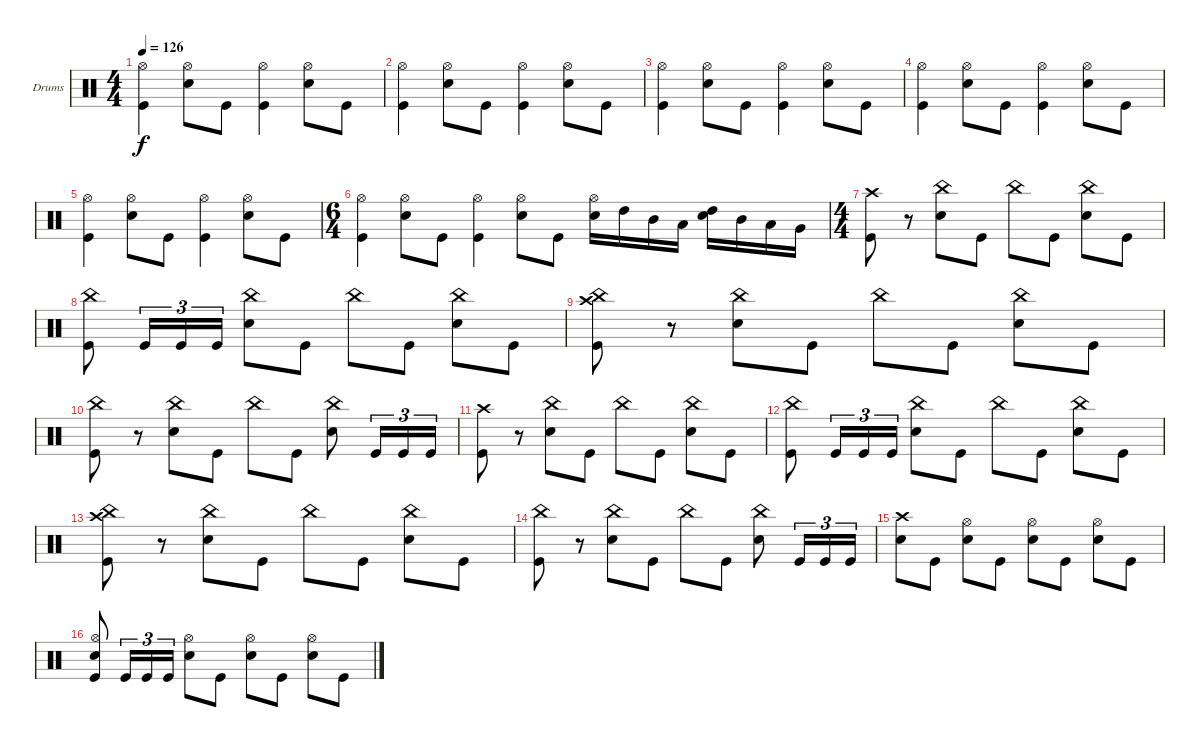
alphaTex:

\bracketExtendMode groupsimilarinstruments
\firstSystemTrackNameOrientation horizontal
\otherSystemsTrackNameOrientation horizontal
\track ("Drumkit" "Drums") {instrument percussion}
\staff {score}
\articulation defaults
\ts (4 4)
\tempo 126
\clef neutral
\ks c
("Kick (hit)" "Hi-Hat (open)").4{dy f} ("Snare (hit) 2" "Hi-Hat (open)").8 "Kick (hit)".8 ("Kick (hit)" "Hi-Hat (open)").4 ("Snare (hit) 2" "Hi-Hat (open)").8 "Kick (hit)".8 |
("Kick (hit)" "Hi-Hat (open)").4 ("Snare (hit) 2" "Hi-Hat (open)").8 "Kick (hit)".8 ("Kick (hit)" "Hi-Hat (open)").4 ("Snare (hit) 2" "Hi-Hat (open)").8 "Kick (hit)".8 |
("Kick (hit)" "Hi-Hat (open)").4 ("Snare (hit) 2" "Hi-Hat (open)").8 "Kick (hit)".8 ("Kick (hit)" "Hi-Hat (open)").4 ("Snare (hit) 2" "Hi-Hat (open)").8 "Kick (hit)".8 |
("Kick (hit)" "Hi-Hat (open)").4 ("Snare (hit) 2" "Hi-Hat (open)").8 "Kick (hit)".8 ("Kick (hit)" "Hi-Hat (open)").4 ("Snare (hit) 2" "Hi-Hat (open)").8 "Kick (hit)".8 |
("Kick (hit)" "Hi-Hat (open)").4 ("Snare (hit) 2" "Hi-Hat (open)").8 "Kick (hit)".8 ("Kick (hit)" "Hi-Hat (open)").4 ("Snare (hit) 2" "Hi-Hat (open)").8 "Kick (hit)".8 |
\ts (6 4)
("Kick (hit)" "Hi-Hat (open)").4 ("Snare (hit) 2" "Hi-Hat (open)").8 "Kick (hit)".8 ("Kick (hit)" "Hi-Hat (open)").4 ("Snare (hit) 2" "Hi-Hat (open)").8 "Kick (hit)".8 ("Hi-Hat (open)" "Snare (hit) 2").16 "High Tom (hit)".16 "Mid Tom (hit)".16 "Low Tom (hit)".16 ("High Tom (hit)" "Snare (hit) 2").16 "Mid Tom (hit)".16 "Low Tom (hit)".16 "Very Low Tom (hit)".16 |
\ts (4 4)
\beaming (8 2 2 2 2)
("Kick (hit)" "Crash high (hit)").8 r.8 ("Snare (hit) 2" "China (hit)").8 "Kick (hit)".8 "China (hit)".8 "Kick (hit)".8 ("Snare (hit) 2" "China (hit)").8 "Kick (hit)".8 |
("Kick (hit)" "China (hit)").8 "Kick (hit)".16{tu (3 2)} "Kick (hit)".16{tu (3 2)} "Kick (hit)".16{tu (3 2)} ("Snare (hit) 2" "China (hit)").8 "Kick (hit)".8 "China (hit)".8 "Kick (hit)".8 ("Snare (hit) 2" "China (hit)").8 "Kick (hit)".8 |
("Kick (hit)" "China (hit)" "Crash high (hit)").8 r.8 ("Snare (hit) 2" "China (hit)").8 "Kick (hit)".8 "China (hit)".8 "Kick (hit)".8 ("Snare (hit) 2" "China (hit)").8 "Kick (hit)".8 |
("Kick (hit)" "China (hit)").8 r.8 ("Snare (hit) 2" "China (hit)").8 "Kick (hit)".8 "China (hit)".8 "Kick (hit)".8 ("Snare (hit) 2" "China (hit)").8 "Kick (hit)".16{tu (3 2)} "Kick (hit)".16{tu (3 2)} "Kick (hit)".16{tu (3 2)} |
("Kick (hit)" "Crash high (hit)").8 r.8 ("Snare (hit) 2" "China (hit)").8 "Kick (hit)".8 "China (hit)".8 "Kick (hit)".8 ("Snare (hit) 2" "China (hit)").8 "Kick (hit)".8 |
("Kick (hit)" "China (hit)").8 "Kick (hit)".16{tu (3 2)} "Kick (hit)".16{tu (3 2)} "Kick (hit)".16{tu (3 2)} ("Snare (hit) 2" "China (hit)").8 "Kick (hit)".8 "China (hit)".8 "Kick (hit)".8 ("Snare (hit) 2" "China (hit)").8 "Kick (hit)".8 |
("Kick (hit)" "China (hit)" "Crash high (hit)").8 r.8 ("Snare (hit) 2" "China (hit)").8 "Kick (hit)".8 "China (hit)".8 "Kick (hit)".8 ("Snare (hit) 2" "China (hit)").8 "Kick (hit)".8 |
("Kick (hit)" "China (hit)").8 r.8 ("Snare (hit) 2" "China (hit)").8 "Kick (hit)".8 "China (hit)".8 "Kick (hit)".8 ("Snare (hit) 2" "China (hit)").8 "Kick (hit)".16{tu (3 2)} "Kick (hit)".16{tu (3 2)} "Kick (hit)".16{tu (3 2)} |
("Crash high (hit)" "Snare (hit) 2").8 "Kick (hit)".8 ("Hi-Hat (open)" "Snare (hit) 2").8 "Kick (hit)".8 ("Hi-Hat (open)" "Snare (hit) 2").8 "Kick (hit)".8 ("Hi-Hat (open)" "Snare (hit) 2").8 "Kick (hit)".8 |
("Kick (hit)" "Hi-Hat (open)" "Snare (hit) 2").8 "Kick (hit)".16{tu (3 2)} "Kick (hit)".16{tu (3 2)} "Kick (hit)".16{tu (3 2)} ("Hi-Hat (open)" "Snare (hit) 2").8 "Kick (hit)".8 ("Hi-Hat (open)" "Snare (hit) 2").8 "Kick (hit)".8 ("Hi-Hat (open)" "Snare (hit) 2").8 "Kick (hit)".8
